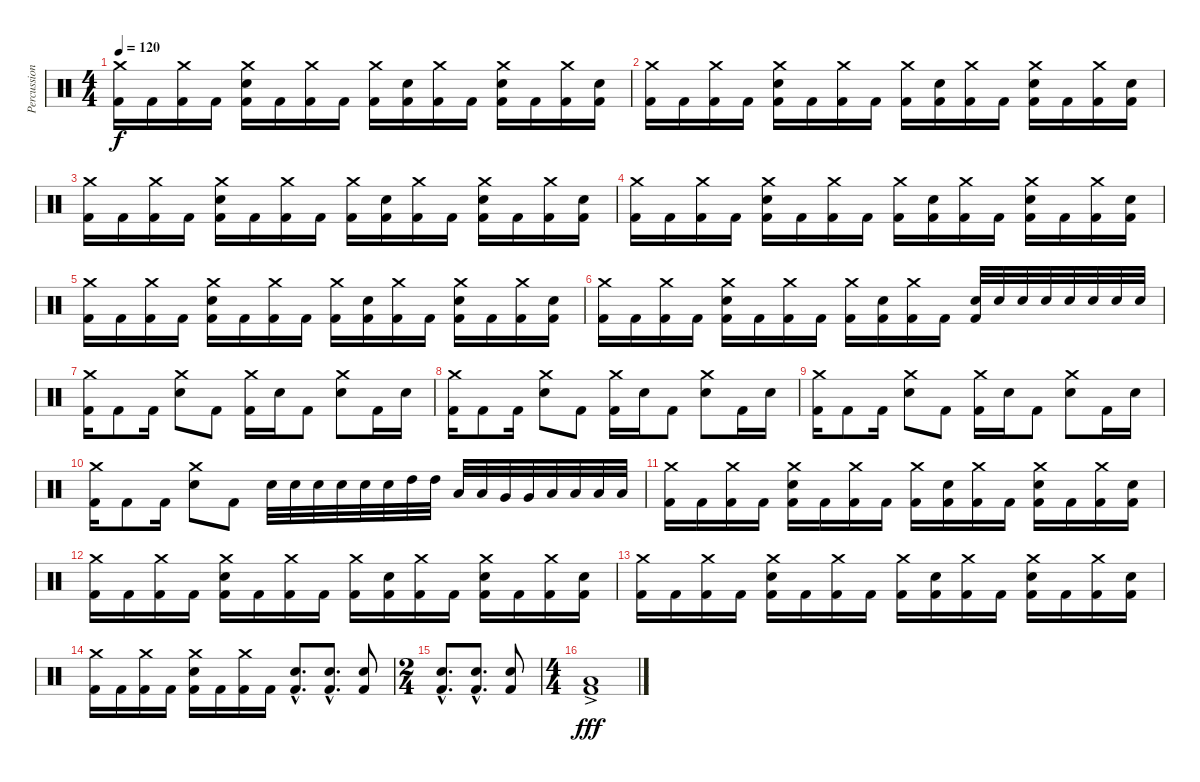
\track ("Percussions" "Percussion") {instrument percussion}
\staff {score}
\articulation defaults
\ts (4 4)
\tempo 120
\clef neutral
\ks c
("Crash medium (hit)" "Kick (hit) 2").16{dy f} "Kick (hit) 2".16 ("Crash medium (hit)" "Kick (hit) 2").16 "Kick (hit) 2".16 ("Electric Snare (hit)" "Crash medium (hit)" "Kick (hit) 2").16 "Kick (hit) 2".16 ("Crash medium (hit)" "Kick (hit) 2").16 "Kick (hit) 2".16 ("Crash medium (hit)" "Kick (hit) 2").16 ("Electric Snare (hit)" "Kick (hit) 2").16 ("Crash medium (hit)" "Kick (hit) 2").16 "Kick (hit) 2".16 ("Electric Snare (hit)" "Crash medium (hit)" "Kick (hit) 2").16 "Kick (hit) 2".16 ("Crash medium (hit)" "Kick (hit) 2").16 ("Electric Snare (hit)" "Kick (hit) 2").16 |
("Crash medium (hit)" "Kick (hit) 2").16 "Kick (hit) 2".16 ("Crash medium (hit)" "Kick (hit) 2").16 "Kick (hit) 2".16 ("Electric Snare (hit)" "Crash medium (hit)" "Kick (hit) 2").16 "Kick (hit) 2".16 ("Crash medium (hit)" "Kick (hit) 2").16 "Kick (hit) 2".16 ("Crash medium (hit)" "Kick (hit) 2").16 ("Electric Snare (hit)" "Kick (hit) 2").16 ("Crash medium (hit)" "Kick (hit) 2").16 "Kick (hit) 2".16 ("Electric Snare (hit)" "Crash medium (hit)" "Kick (hit) 2").16 "Kick (hit) 2".16 ("Crash medium (hit)" "Kick (hit) 2").16 ("Electric Snare (hit)" "Kick (hit) 2").16 |
("Crash medium (hit)" "Kick (hit) 2").16 "Kick (hit) 2".16 ("Crash medium (hit)" "Kick (hit) 2").16 "Kick (hit) 2".16 ("Electric Snare (hit)" "Crash medium (hit)" "Kick (hit) 2").16 "Kick (hit) 2".16 ("Crash medium (hit)" "Kick (hit) 2").16 "Kick (hit) 2".16 ("Crash medium (hit)" "Kick (hit) 2").16 ("Electric Snare (hit)" "Kick (hit) 2").16 ("Crash medium (hit)" "Kick (hit) 2").16 "Kick (hit) 2".16 ("Electric Snare (hit)" "Crash medium (hit)" "Kick (hit) 2").16 "Kick (hit) 2".16 ("Crash medium (hit)" "Kick (hit) 2").16 ("Electric Snare (hit)" "Kick (hit) 2").16 |
("Crash medium (hit)" "Kick (hit) 2").16 "Kick (hit) 2".16 ("Crash medium (hit)" "Kick (hit) 2").16 "Kick (hit) 2".16 ("Electric Snare (hit)" "Crash medium (hit)" "Kick (hit) 2").16 "Kick (hit) 2".16 ("Crash medium (hit)" "Kick (hit) 2").16 "Kick (hit) 2".16 ("Crash medium (hit)" "Kick (hit) 2").16 ("Electric Snare (hit)" "Kick (hit) 2").16 ("Crash medium (hit)" "Kick (hit) 2").16 "Kick (hit) 2".16 ("Electric Snare (hit)" "Crash medium (hit)" "Kick (hit) 2").16 "Kick (hit) 2".16 ("Crash medium (hit)" "Kick (hit) 2").16 ("Electric Snare (hit)" "Kick (hit) 2").16 |
("Crash medium (hit)" "Kick (hit) 2").16 "Kick (hit) 2".16 ("Crash medium (hit)" "Kick (hit) 2").16 "Kick (hit) 2".16 ("Electric Snare (hit)" "Crash medium (hit)" "Kick (hit) 2").16 "Kick (hit) 2".16 ("Crash medium (hit)" "Kick (hit) 2").16 "Kick (hit) 2".16 ("Crash medium (hit)" "Kick (hit) 2").16 ("Electric Snare (hit)" "Kick (hit) 2").16 ("Crash medium (hit)" "Kick (hit) 2").16 "Kick (hit) 2".16 ("Electric Snare (hit)" "Crash medium (hit)" "Kick (hit) 2").16 "Kick (hit) 2".16 ("Crash medium (hit)" "Kick (hit) 2").16 ("Electric Snare (hit)" "Kick (hit) 2").16 |
("Crash medium (hit)" "Kick (hit) 2").16 "Kick (hit) 2".16 ("Crash medium (hit)" "Kick (hit) 2").16 "Kick (hit) 2".16 ("Electric Snare (hit)" "Crash medium (hit)" "Kick (hit) 2").16 "Kick (hit) 2".16 ("Crash medium (hit)" "Kick (hit) 2").16 "Kick (hit) 2".16 ("Crash medium (hit)" "Kick (hit) 2").16 ("Electric Snare (hit)" "Kick (hit) 2").16 ("Crash medium (hit)" "Kick (hit) 2").16 "Kick (hit) 2".16 ("Electric Snare (hit)" "Kick (hit) 2").32 "Electric Snare (hit)".32 "Electric Snare (hit)".32 "Electric Snare (hit)".32 "Electric Snare (hit)".32 "Electric Snare (hit)".32 "Electric Snare (hit)".32 "Electric Snare (hit)".32 |
("Crash medium (hit)" "Kick (hit) 2").16 "Kick (hit) 2".8 "Kick (hit) 2".16 ("Electric Snare (hit)" "Crash medium (hit)").8 "Kick (hit) 2".8 ("Crash medium (hit)" "Kick (hit) 2").16 "Electric Snare (hit)".16 "Kick (hit) 2".8 ("Electric Snare (hit)" "Crash medium (hit)").8 "Kick (hit) 2".16 "Electric Snare (hit)".16 |
("Crash medium (hit)" "Kick (hit) 2").16 "Kick (hit) 2".8 "Kick (hit) 2".16 ("Electric Snare (hit)" "Crash medium (hit)").8 "Kick (hit) 2".8 ("Crash medium (hit)" "Kick (hit) 2").16 "Electric Snare (hit)".16 "Kick (hit) 2".8 ("Electric Snare (hit)" "Crash medium (hit)").8 "Kick (hit) 2".16 "Electric Snare (hit)".16 |
("Crash medium (hit)" "Kick (hit) 2").16 "Kick (hit) 2".8 "Kick (hit) 2".16 ("Electric Snare (hit)" "Crash medium (hit)").8 "Kick (hit) 2".8 ("Crash medium (hit)" "Kick (hit) 2").16 "Electric Snare (hit)".16 "Kick (hit) 2".8 ("Electric Snare (hit)" "Crash medium (hit)").8 "Kick (hit) 2".16 "Electric Snare (hit)".16 |
("Crash medium (hit)" "Kick (hit) 2").16 "Kick (hit) 2".8 "Kick (hit) 2".16 ("Electric Snare (hit)" "Crash medium (hit)").8 "Kick (hit) 2".8 "Electric Snare (hit)".32 "Electric Snare (hit)".32 "Electric Snare (hit)".32 "Electric Snare (hit)".32 "Electric Snare (hit)".32 "Electric Snare (hit)".32 "High Tom (hit)".32 "High Tom (hit)".32 "Low Tom (hit)".32 "Low Tom (hit)".32 "Very Low Tom (hit)".32 "Very Low Tom (hit)".32 "Low Floor Tom (hit)".32 "Low Floor Tom (hit)".32 "Low Floor Tom (hit)".32 "Low Floor Tom (hit)".32 |
("Crash medium (hit)" "Kick (hit) 2").16 "Kick (hit) 2".16 ("Crash medium (hit)" "Kick (hit) 2").16 "Kick (hit) 2".16 ("Electric Snare (hit)" "Crash medium (hit)" "Kick (hit) 2").16 "Kick (hit) 2".16 ("Crash medium (hit)" "Kick (hit) 2").16 "Kick (hit) 2".16 ("Crash medium (hit)" "Kick (hit) 2").16 ("Electric Snare (hit)" "Kick (hit) 2").16 ("Crash medium (hit)" "Kick (hit) 2").16 "Kick (hit) 2".16 ("Electric Snare (hit)" "Crash medium (hit)" "Kick (hit) 2").16 "Kick (hit) 2".16 ("Crash medium (hit)" "Kick (hit) 2").16 ("Electric Snare (hit)" "Kick (hit) 2").16 |
("Crash medium (hit)" "Kick (hit) 2").16 "Kick (hit) 2".16 ("Crash medium (hit)" "Kick (hit) 2").16 "Kick (hit) 2".16 ("Electric Snare (hit)" "Crash medium (hit)" "Kick (hit) 2").16 "Kick (hit) 2".16 ("Crash medium (hit)" "Kick (hit) 2").16 "Kick (hit) 2".16 ("Crash medium (hit)" "Kick (hit) 2").16 ("Electric Snare (hit)" "Kick (hit) 2").16 ("Crash medium (hit)" "Kick (hit) 2").16 "Kick (hit) 2".16 ("Electric Snare (hit)" "Crash medium (hit)" "Kick (hit) 2").16 "Kick (hit) 2".16 ("Crash medium (hit)" "Kick (hit) 2").16 ("Electric Snare (hit)" "Kick (hit) 2").16 |
("Crash medium (hit)" "Kick (hit) 2").16 "Kick (hit) 2".16 ("Crash medium (hit)" "Kick (hit) 2").16 "Kick (hit) 2".16 ("Electric Snare (hit)" "Crash medium (hit)" "Kick (hit) 2").16 "Kick (hit) 2".16 ("Crash medium (hit)" "Kick (hit) 2").16 "Kick (hit) 2".16 ("Crash medium (hit)" "Kick (hit) 2").16 ("Electric Snare (hit)" "Kick (hit) 2").16 ("Crash medium (hit)" "Kick (hit) 2").16 "Kick (hit) 2".16 ("Electric Snare (hit)" "Crash medium (hit)" "Kick (hit) 2").16 "Kick (hit) 2".16 ("Crash medium (hit)" "Kick (hit) 2").16 ("Electric Snare (hit)" "Kick (hit) 2").16 |
("Crash medium (hit)" "Kick (hit) 2").16 "Kick (hit) 2".16 ("Crash medium (hit)" "Kick (hit) 2").16 "Kick (hit) 2".16 ("Electric Snare (hit)" "Crash medium (hit)" "Kick (hit) 2").16 "Kick (hit) 2".16 ("Crash medium (hit)" "Kick (hit) 2").16 "Kick (hit) 2".16 ("Electric Snare (hit)"{hac} "Kick (hit) 2"{hac}).8{d} ("Electric Snare (hit)"{hac} "Kick (hit) 2"{hac}).8{d} ("Electric Snare (hit)" "Kick (hit) 2").8 |
\ts (2 4)
("Electric Snare (hit)"{hac} "Kick (hit) 2"{hac}).8{d} ("Electric Snare (hit)"{hac} "Kick (hit) 2"{hac}).8{d} ("Electric Snare (hit)" "Kick (hit) 2").8 |
\ts (4 4)
("Low Floor Tom (hit)"{ac} "Kick (hit) 2"{ac}).1{dy fff}
